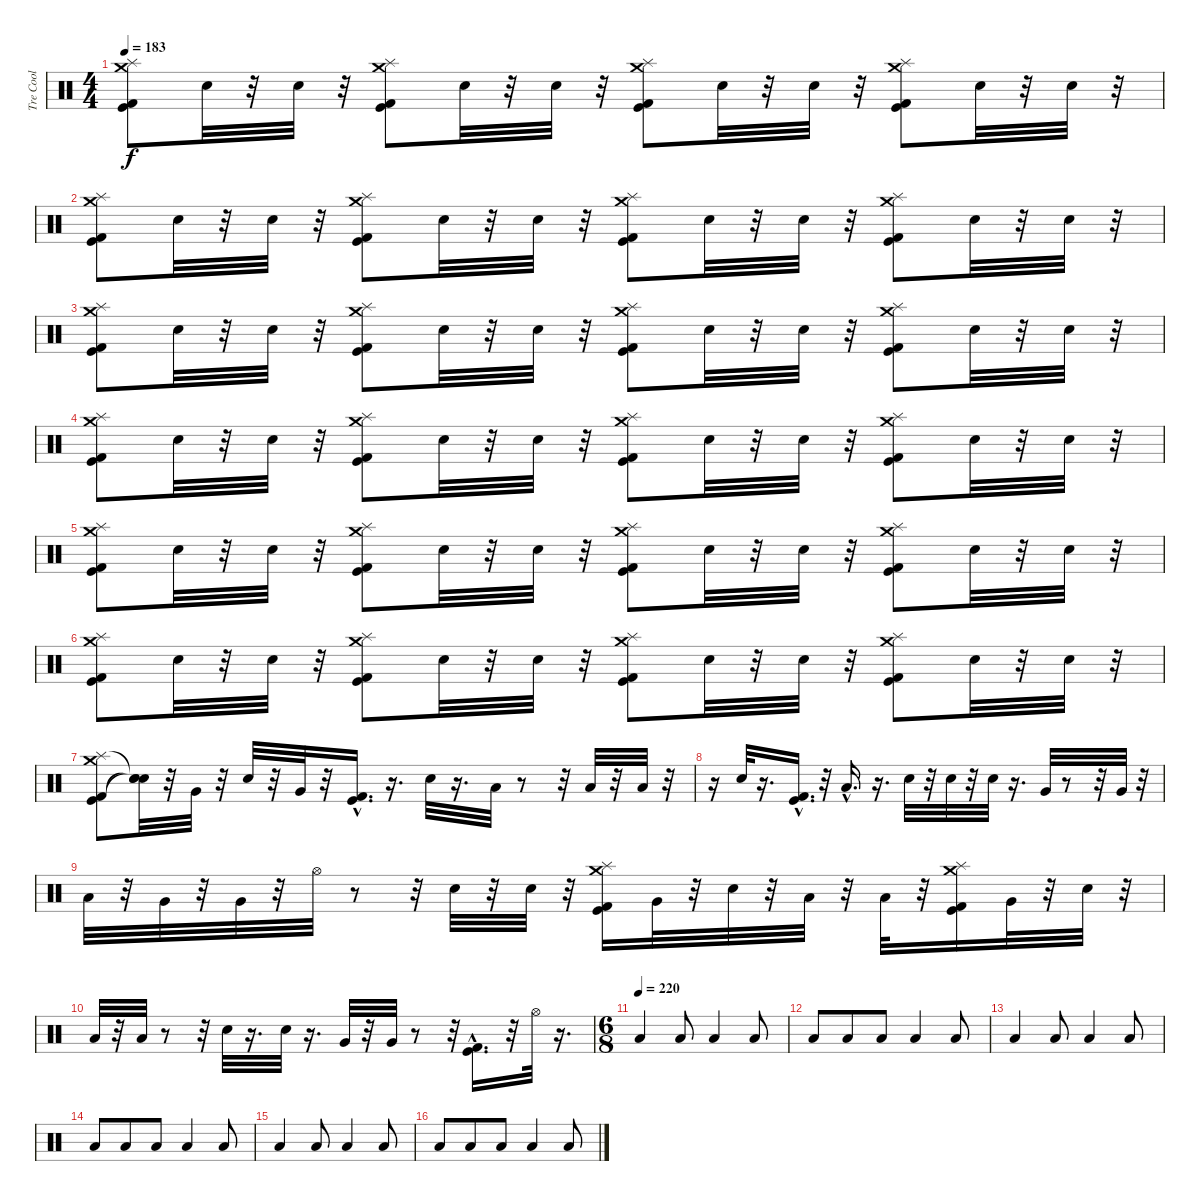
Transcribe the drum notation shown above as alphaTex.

\track ("Tre Cool" "Tre Cool") {instrument percussion}
\staff {score}
\articulation defaults
\ts (4 4)
\tempo 183
\clef neutral
\ks c
("Kick (hit)" "Kick (hit) 2" "Splash (hit)" "Crash medium (hit)").8{dy f} "Electric Snare (hit)".32 r.32 "Electric Snare (hit)".32 r.32 ("Kick (hit)" "Kick (hit) 2" "Splash (hit)" "Crash medium (hit)").8 "Electric Snare (hit)".32 r.32 "Electric Snare (hit)".32 r.32 ("Kick (hit)" "Kick (hit) 2" "Splash (hit)" "Crash medium (hit)").8 "Electric Snare (hit)".32 r.32 "Electric Snare (hit)".32 r.32 ("Kick (hit)" "Kick (hit) 2" "Splash (hit)" "Crash medium (hit)").8 "Electric Snare (hit)".32 r.32 "Electric Snare (hit)".32 r.32 |
("Kick (hit)" "Kick (hit) 2" "Splash (hit)" "Crash medium (hit)").8 "Electric Snare (hit)".32 r.32 "Electric Snare (hit)".32 r.32 ("Kick (hit)" "Kick (hit) 2" "Splash (hit)" "Crash medium (hit)").8 "Electric Snare (hit)".32 r.32 "Electric Snare (hit)".32 r.32 ("Kick (hit)" "Kick (hit) 2" "Splash (hit)" "Crash medium (hit)").8 "Electric Snare (hit)".32 r.32 "Electric Snare (hit)".32 r.32 ("Kick (hit)" "Kick (hit) 2" "Splash (hit)" "Crash medium (hit)").8 "Electric Snare (hit)".32 r.32 "Electric Snare (hit)".32 r.32 |
("Kick (hit)" "Kick (hit) 2" "Splash (hit)" "Crash medium (hit)").8 "Electric Snare (hit)".32 r.32 "Electric Snare (hit)".32 r.32 ("Kick (hit)" "Kick (hit) 2" "Splash (hit)" "Crash medium (hit)").8 "Electric Snare (hit)".32 r.32 "Electric Snare (hit)".32 r.32 ("Kick (hit)" "Kick (hit) 2" "Splash (hit)" "Crash medium (hit)").8 "Electric Snare (hit)".32 r.32 "Electric Snare (hit)".32 r.32 ("Kick (hit)" "Kick (hit) 2" "Splash (hit)" "Crash medium (hit)").8 "Electric Snare (hit)".32 r.32 "Electric Snare (hit)".32 r.32 |
("Kick (hit)" "Kick (hit) 2" "Splash (hit)" "Crash medium (hit)").8 "Electric Snare (hit)".32 r.32 "Electric Snare (hit)".32 r.32 ("Kick (hit)" "Kick (hit) 2" "Splash (hit)" "Crash medium (hit)").8 "Electric Snare (hit)".32 r.32 "Electric Snare (hit)".32 r.32 ("Kick (hit)" "Kick (hit) 2" "Splash (hit)" "Crash medium (hit)").8 "Electric Snare (hit)".32 r.32 "Electric Snare (hit)".32 r.32 ("Kick (hit)" "Kick (hit) 2" "Splash (hit)" "Crash medium (hit)").8 "Electric Snare (hit)".32 r.32 "Electric Snare (hit)".32 r.32 |
("Kick (hit)" "Kick (hit) 2" "Splash (hit)" "Crash medium (hit)").8 "Electric Snare (hit)".32 r.32 "Electric Snare (hit)".32 r.32 ("Kick (hit)" "Kick (hit) 2" "Splash (hit)" "Crash medium (hit)").8 "Electric Snare (hit)".32 r.32 "Electric Snare (hit)".32 r.32 ("Kick (hit)" "Kick (hit) 2" "Splash (hit)" "Crash medium (hit)").8 "Electric Snare (hit)".32 r.32 "Electric Snare (hit)".32 r.32 ("Kick (hit)" "Kick (hit) 2" "Splash (hit)" "Crash medium (hit)").8 "Electric Snare (hit)".32 r.32 "Electric Snare (hit)".32 r.32 |
("Kick (hit)" "Kick (hit) 2" "Splash (hit)" "Crash medium (hit)").8 "Electric Snare (hit)".32 r.32 "Electric Snare (hit)".32 r.32 ("Kick (hit)" "Kick (hit) 2" "Splash (hit)" "Crash medium (hit)").8 "Electric Snare (hit)".32 r.32 "Electric Snare (hit)".32 r.32 ("Kick (hit)" "Kick (hit) 2" "Splash (hit)" "Crash medium (hit)").8 "Electric Snare (hit)".32 r.32 "Electric Snare (hit)".32 r.32 ("Kick (hit)" "Kick (hit) 2" "Splash (hit)" "Crash medium (hit)").8 "Electric Snare (hit)".32 r.32 "Electric Snare (hit)".32 r.32 |
("Kick (hit)" "Kick (hit) 2" "Splash (hit)" "Crash medium (hit)").8 ("Snare (hit)"{t} "Snare (hit)"{t} "Snare (hit)"{t}).32 r.32 "Very Low Tom (hit)".32 r.32 "Electric Snare (hit)".32 r.32 "Very Low Tom (hit)".32 r.32 ("Kick (hit)"{hac} "Kick (hit) 2"{hac}).16{d} r.16{d} "Electric Snare (hit)".32 r.16{d} "Low Floor Tom (hit)".32 r.8 r.32 "Low Floor Tom (hit)".32 r.32 "Low Tom (hit)".32 r.32 |
r.16 "Electric Snare (hit)".32 r.16{d} ("Kick (hit)"{hac} "Kick (hit) 2"{hac}).16{d} r.32 "Low Floor Tom (hit)"{hac}.16{d} r.16{d} "Snare (hit) 2".32 r.32 "Snare (hit) 2".32 r.32 "Electric Snare (hit)".32 r.16{d} "Very Low Tom (hit)".32 r.8 r.32 "Very Low Tom (hit)".32 r.32 |
"Low Tom (hit)".32 r.32 "Very Low Tom (hit)".32 r.32 "Very Low Tom (hit)".32 r.32 "Hi-Hat (open)".32 r.8 r.32 "Electric Snare (hit)".32 r.32 "Electric Snare (hit)".32 r.32 ("Kick (hit)" "Kick (hit) 2" "Splash (hit)" "Crash medium (hit)").16 "Very Low Tom (hit)".32 r.32 "Electric Snare (hit)".32 r.32 "Low Floor Tom (hit)".32 r.32 "Low Floor Tom (hit)".32 r.32 ("Kick (hit)" "Kick (hit) 2" "Splash (hit)" "Crash medium (hit)").16 "Very Low Tom (hit)".32 r.32 "Electric Snare (hit)".32 r.32 |
"Low Floor Tom (hit)".32 r.32 "Low Floor Tom (hit)".32 r.8 r.32 "Electric Snare (hit)".32 r.16{d} "Electric Snare (hit)".32 r.16{d} "Very Low Tom (hit)".32 r.32 "Very Low Tom (hit)".32 r.8 r.32 ("Kick (hit)"{hac} "Kick (hit) 2"{hac}).16{d} r.32 "Hi-Hat (open)".32 r.16{d} |
\ts (6 8)
\tempo (220)
"Low Floor Tom (hit)".4 "Low Floor Tom (hit)".8 "Low Tom (hit)".4 "Low Tom (hit)".8 |
"Low Floor Tom (hit)".8 "Low Floor Tom (hit)".8 "Low Floor Tom (hit)".8 "Low Tom (hit)".4 "Low Tom (hit)".8 |
"Low Floor Tom (hit)".4 "Low Floor Tom (hit)".8 "Low Tom (hit)".4 "Low Tom (hit)".8 |
"Low Floor Tom (hit)".8 "Low Floor Tom (hit)".8 "Low Floor Tom (hit)".8 "Low Tom (hit)".4 "Low Tom (hit)".8 |
"Low Floor Tom (hit)".4 "Low Floor Tom (hit)".8 "Low Tom (hit)".4 "Low Tom (hit)".8 |
"Low Floor Tom (hit)".8 "Low Floor Tom (hit)".8 "Low Floor Tom (hit)".8 "Low Tom (hit)".4 "Low Tom (hit)".8
